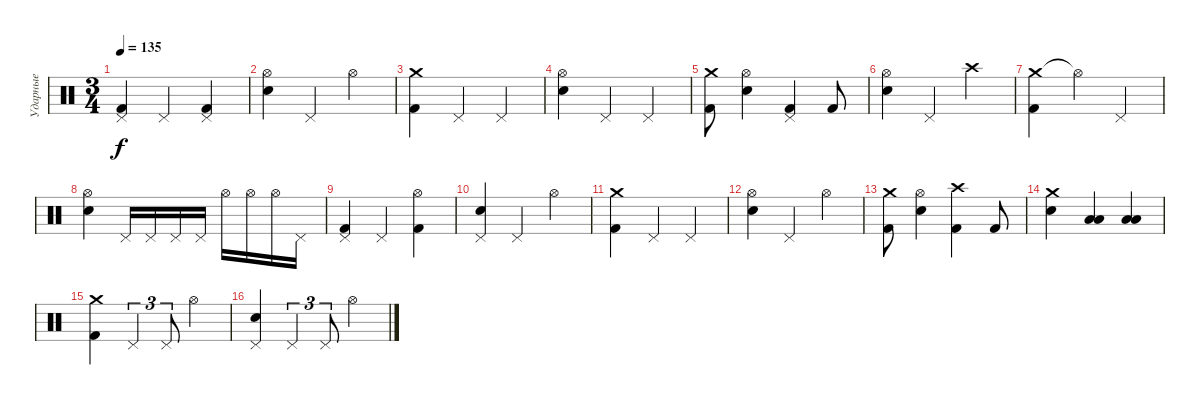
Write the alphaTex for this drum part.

\track ("Ударные" "Ударные") {instrument percussion}
\staff {score}
\articulation defaults
\ts (3 4)
\tempo 135
\clef neutral
\ks c
("Pedal Hi-Hat (hit)" "Kick (hit) 2").4{dy f} "Pedal Hi-Hat (hit)".4 ("Pedal Hi-Hat (hit)" "Kick (hit) 2").4 |
("Hi-Hat (open)" "Electric Snare (hit)").4 "Pedal Hi-Hat (hit)".4 "Hi-Hat (open)".4 |
("Crash medium (hit)" "Kick (hit) 2").4 "Pedal Hi-Hat (hit)".4 "Pedal Hi-Hat (hit)".4 |
("Hi-Hat (open)" "Electric Snare (hit)").4 "Pedal Hi-Hat (hit)".4 "Pedal Hi-Hat (hit)".4 |
("Crash medium (hit)" "Kick (hit) 2").8 ("Hi-Hat (open)" "Electric Snare (hit)").4 ("Pedal Hi-Hat (hit)" "Kick (hit) 2").4 "Kick (hit) 2".8 |
("Hi-Hat (open)" "Electric Snare (hit)").4 "Pedal Hi-Hat (hit)".4 "Crash high (hit)".4 |
("Crash medium (hit)" "Kick (hit) 2").4 "Hi-Hat (open)"{t}.4 "Pedal Hi-Hat (hit)".4 |
("Hi-Hat (open)" "Electric Snare (hit)").4 "Pedal Hi-Hat (hit)".16 "Pedal Hi-Hat (hit)".16 "Pedal Hi-Hat (hit)".16 "Pedal Hi-Hat (hit)".16 "Hi-Hat (open)".16 "Hi-Hat (open)".16 "Hi-Hat (open)".16 "Pedal Hi-Hat (hit)".16 |
("Pedal Hi-Hat (hit)" "Kick (hit) 2").4 "Pedal Hi-Hat (hit)".4 ("Hi-Hat (open)" "Kick (hit) 2").4 |
("Pedal Hi-Hat (hit)" "Electric Snare (hit)").4 "Pedal Hi-Hat (hit)".4 "Hi-Hat (open)".4 |
("Crash medium (hit)" "Kick (hit) 2").4 "Pedal Hi-Hat (hit)".4 "Pedal Hi-Hat (hit)".4 |
("Hi-Hat (open)" "Electric Snare (hit)").4 "Pedal Hi-Hat (hit)".4 "Hi-Hat (open)".4 |
("Crash medium (hit)" "Kick (hit) 2").8 ("Hi-Hat (open)" "Electric Snare (hit)").4 ("Crash high (hit)" "Kick (hit) 2").4 "Kick (hit) 2".8 |
("Crash medium (hit)" "Electric Snare (hit)").4 ("Low Floor Tom (hit)" "Low Tom (hit)").4 ("Low Floor Tom (hit)" "Low Tom (hit)").4 |
("Crash medium (hit)" "Kick (hit) 2").4 "Pedal Hi-Hat (hit)".4{tu (3 2)} "Pedal Hi-Hat (hit)".8{tu (3 2)} "Hi-Hat (open)".4 |
("Pedal Hi-Hat (hit)" "Electric Snare (hit)").4 "Pedal Hi-Hat (hit)".4{tu (3 2)} "Pedal Hi-Hat (hit)".8{tu (3 2)} "Hi-Hat (open)".4
